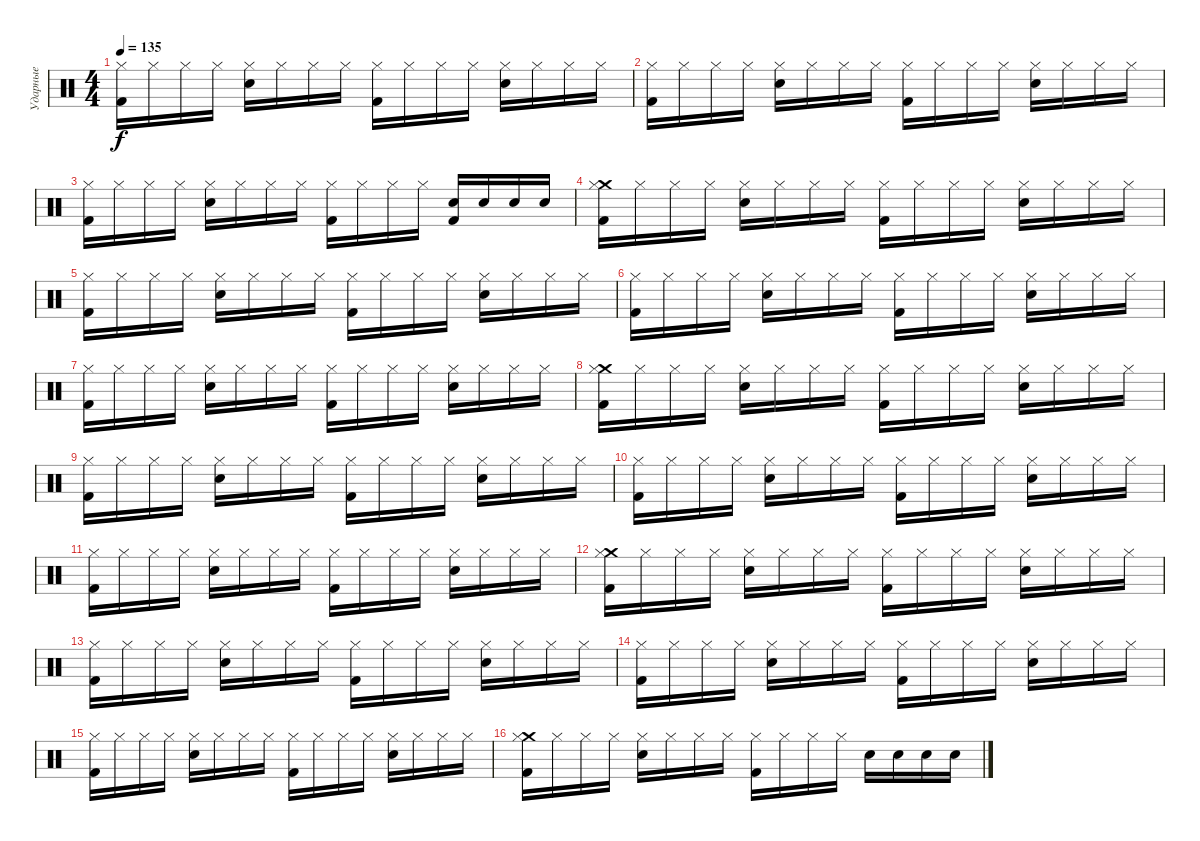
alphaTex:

\track ("Ударные" "Ударные") {instrument percussion}
\staff {score}
\articulation defaults
\ts (4 4)
\tempo 135
\clef neutral
\ks c
("Hi-Hat (closed)" "Kick (hit) 2").16{dy f} "Hi-Hat (closed)".16 "Hi-Hat (closed)".16 "Hi-Hat (closed)".16 ("Hi-Hat (closed)" "Snare (hit) 2").16 "Hi-Hat (closed)".16 "Hi-Hat (closed)".16 "Hi-Hat (closed)".16 ("Hi-Hat (closed)" "Kick (hit) 2").16 "Hi-Hat (closed)".16 "Hi-Hat (closed)".16 "Hi-Hat (closed)".16 ("Hi-Hat (closed)" "Snare (hit) 2").16 "Hi-Hat (closed)".16 "Hi-Hat (closed)".16 "Hi-Hat (closed)".16 |
("Hi-Hat (closed)" "Kick (hit) 2").16 "Hi-Hat (closed)".16 "Hi-Hat (closed)".16 "Hi-Hat (closed)".16 ("Hi-Hat (closed)" "Snare (hit) 2").16 "Hi-Hat (closed)".16 "Hi-Hat (closed)".16 "Hi-Hat (closed)".16 ("Hi-Hat (closed)" "Kick (hit) 2").16 "Hi-Hat (closed)".16 "Hi-Hat (closed)".16 "Hi-Hat (closed)".16 ("Hi-Hat (closed)" "Snare (hit) 2").16 "Hi-Hat (closed)".16 "Hi-Hat (closed)".16 "Hi-Hat (closed)".16 |
("Hi-Hat (closed)" "Kick (hit) 2").16 "Hi-Hat (closed)".16 "Hi-Hat (closed)".16 "Hi-Hat (closed)".16 ("Hi-Hat (closed)" "Snare (hit) 2").16 "Hi-Hat (closed)".16 "Hi-Hat (closed)".16 "Hi-Hat (closed)".16 ("Hi-Hat (closed)" "Kick (hit) 2").16 "Hi-Hat (closed)".16 "Hi-Hat (closed)".16 "Hi-Hat (closed)".16 ("Snare (hit) 2" "Kick (hit) 2").16 "Snare (hit) 2".16 "Snare (hit) 2".16 "Snare (hit) 2".16 |
("Crash medium (hit)" "Hi-Hat (closed)" "Kick (hit) 2").16 "Hi-Hat (closed)".16 "Hi-Hat (closed)".16 "Hi-Hat (closed)".16 ("Hi-Hat (closed)" "Snare (hit) 2").16 "Hi-Hat (closed)".16 "Hi-Hat (closed)".16 "Hi-Hat (closed)".16 ("Hi-Hat (closed)" "Kick (hit) 2").16 "Hi-Hat (closed)".16 "Hi-Hat (closed)".16 "Hi-Hat (closed)".16 ("Hi-Hat (closed)" "Snare (hit) 2").16 "Hi-Hat (closed)".16 "Hi-Hat (closed)".16 "Hi-Hat (closed)".16 |
("Hi-Hat (closed)" "Kick (hit) 2").16 "Hi-Hat (closed)".16 "Hi-Hat (closed)".16 "Hi-Hat (closed)".16 ("Hi-Hat (closed)" "Snare (hit) 2").16 "Hi-Hat (closed)".16 "Hi-Hat (closed)".16 "Hi-Hat (closed)".16 ("Hi-Hat (closed)" "Kick (hit) 2").16 "Hi-Hat (closed)".16 "Hi-Hat (closed)".16 "Hi-Hat (closed)".16 ("Hi-Hat (closed)" "Snare (hit) 2").16 "Hi-Hat (closed)".16 "Hi-Hat (closed)".16 "Hi-Hat (closed)".16 |
("Hi-Hat (closed)" "Kick (hit) 2").16 "Hi-Hat (closed)".16 "Hi-Hat (closed)".16 "Hi-Hat (closed)".16 ("Hi-Hat (closed)" "Snare (hit) 2").16 "Hi-Hat (closed)".16 "Hi-Hat (closed)".16 "Hi-Hat (closed)".16 ("Hi-Hat (closed)" "Kick (hit) 2").16 "Hi-Hat (closed)".16 "Hi-Hat (closed)".16 "Hi-Hat (closed)".16 ("Hi-Hat (closed)" "Snare (hit) 2").16 "Hi-Hat (closed)".16 "Hi-Hat (closed)".16 "Hi-Hat (closed)".16 |
("Hi-Hat (closed)" "Kick (hit) 2").16 "Hi-Hat (closed)".16 "Hi-Hat (closed)".16 "Hi-Hat (closed)".16 ("Hi-Hat (closed)" "Snare (hit) 2").16 "Hi-Hat (closed)".16 "Hi-Hat (closed)".16 "Hi-Hat (closed)".16 ("Hi-Hat (closed)" "Kick (hit) 2").16 "Hi-Hat (closed)".16 "Hi-Hat (closed)".16 "Hi-Hat (closed)".16 ("Hi-Hat (closed)" "Snare (hit) 2").16 "Hi-Hat (closed)".16 "Hi-Hat (closed)".16 "Hi-Hat (closed)".16 |
("Crash medium (hit)" "Hi-Hat (closed)" "Kick (hit) 2").16 "Hi-Hat (closed)".16 "Hi-Hat (closed)".16 "Hi-Hat (closed)".16 ("Hi-Hat (closed)" "Snare (hit) 2").16 "Hi-Hat (closed)".16 "Hi-Hat (closed)".16 "Hi-Hat (closed)".16 ("Hi-Hat (closed)" "Kick (hit) 2").16 "Hi-Hat (closed)".16 "Hi-Hat (closed)".16 "Hi-Hat (closed)".16 ("Hi-Hat (closed)" "Snare (hit) 2").16 "Hi-Hat (closed)".16 "Hi-Hat (closed)".16 "Hi-Hat (closed)".16 |
("Hi-Hat (closed)" "Kick (hit) 2").16 "Hi-Hat (closed)".16 "Hi-Hat (closed)".16 "Hi-Hat (closed)".16 ("Hi-Hat (closed)" "Snare (hit) 2").16 "Hi-Hat (closed)".16 "Hi-Hat (closed)".16 "Hi-Hat (closed)".16 ("Hi-Hat (closed)" "Kick (hit) 2").16 "Hi-Hat (closed)".16 "Hi-Hat (closed)".16 "Hi-Hat (closed)".16 ("Hi-Hat (closed)" "Snare (hit) 2").16 "Hi-Hat (closed)".16 "Hi-Hat (closed)".16 "Hi-Hat (closed)".16 |
("Hi-Hat (closed)" "Kick (hit) 2").16 "Hi-Hat (closed)".16 "Hi-Hat (closed)".16 "Hi-Hat (closed)".16 ("Hi-Hat (closed)" "Snare (hit) 2").16 "Hi-Hat (closed)".16 "Hi-Hat (closed)".16 "Hi-Hat (closed)".16 ("Hi-Hat (closed)" "Kick (hit) 2").16 "Hi-Hat (closed)".16 "Hi-Hat (closed)".16 "Hi-Hat (closed)".16 ("Hi-Hat (closed)" "Snare (hit) 2").16 "Hi-Hat (closed)".16 "Hi-Hat (closed)".16 "Hi-Hat (closed)".16 |
("Hi-Hat (closed)" "Kick (hit) 2").16 "Hi-Hat (closed)".16 "Hi-Hat (closed)".16 "Hi-Hat (closed)".16 ("Hi-Hat (closed)" "Snare (hit) 2").16 "Hi-Hat (closed)".16 "Hi-Hat (closed)".16 "Hi-Hat (closed)".16 ("Hi-Hat (closed)" "Kick (hit) 2").16 "Hi-Hat (closed)".16 "Hi-Hat (closed)".16 "Hi-Hat (closed)".16 ("Hi-Hat (closed)" "Snare (hit) 2").16 "Hi-Hat (closed)".16 "Hi-Hat (closed)".16 "Hi-Hat (closed)".16 |
("Crash medium (hit)" "Hi-Hat (closed)" "Kick (hit) 2").16 "Hi-Hat (closed)".16 "Hi-Hat (closed)".16 "Hi-Hat (closed)".16 ("Hi-Hat (closed)" "Snare (hit) 2").16 "Hi-Hat (closed)".16 "Hi-Hat (closed)".16 "Hi-Hat (closed)".16 ("Hi-Hat (closed)" "Kick (hit) 2").16 "Hi-Hat (closed)".16 "Hi-Hat (closed)".16 "Hi-Hat (closed)".16 ("Hi-Hat (closed)" "Snare (hit) 2").16 "Hi-Hat (closed)".16 "Hi-Hat (closed)".16 "Hi-Hat (closed)".16 |
("Hi-Hat (closed)" "Kick (hit) 2").16 "Hi-Hat (closed)".16 "Hi-Hat (closed)".16 "Hi-Hat (closed)".16 ("Hi-Hat (closed)" "Snare (hit) 2").16 "Hi-Hat (closed)".16 "Hi-Hat (closed)".16 "Hi-Hat (closed)".16 ("Hi-Hat (closed)" "Kick (hit) 2").16 "Hi-Hat (closed)".16 "Hi-Hat (closed)".16 "Hi-Hat (closed)".16 ("Hi-Hat (closed)" "Snare (hit) 2").16 "Hi-Hat (closed)".16 "Hi-Hat (closed)".16 "Hi-Hat (closed)".16 |
("Hi-Hat (closed)" "Kick (hit) 2").16 "Hi-Hat (closed)".16 "Hi-Hat (closed)".16 "Hi-Hat (closed)".16 ("Hi-Hat (closed)" "Snare (hit) 2").16 "Hi-Hat (closed)".16 "Hi-Hat (closed)".16 "Hi-Hat (closed)".16 ("Hi-Hat (closed)" "Kick (hit) 2").16 "Hi-Hat (closed)".16 "Hi-Hat (closed)".16 "Hi-Hat (closed)".16 ("Hi-Hat (closed)" "Snare (hit) 2").16 "Hi-Hat (closed)".16 "Hi-Hat (closed)".16 "Hi-Hat (closed)".16 |
("Hi-Hat (closed)" "Kick (hit) 2").16 "Hi-Hat (closed)".16 "Hi-Hat (closed)".16 "Hi-Hat (closed)".16 ("Hi-Hat (closed)" "Snare (hit) 2").16 "Hi-Hat (closed)".16 "Hi-Hat (closed)".16 "Hi-Hat (closed)".16 ("Hi-Hat (closed)" "Kick (hit) 2").16 "Hi-Hat (closed)".16 "Hi-Hat (closed)".16 "Hi-Hat (closed)".16 ("Hi-Hat (closed)" "Snare (hit) 2").16 "Hi-Hat (closed)".16 "Hi-Hat (closed)".16 "Hi-Hat (closed)".16 |
("Crash medium (hit)" "Hi-Hat (closed)" "Kick (hit) 2").16 "Hi-Hat (closed)".16 "Hi-Hat (closed)".16 "Hi-Hat (closed)".16 ("Hi-Hat (closed)" "Snare (hit) 2").16 "Hi-Hat (closed)".16 "Hi-Hat (closed)".16 "Hi-Hat (closed)".16 ("Hi-Hat (closed)" "Kick (hit) 2").16 "Hi-Hat (closed)".16 "Hi-Hat (closed)".16 "Hi-Hat (closed)".16 "Snare (hit) 2".16 "Snare (hit) 2".16 "Snare (hit) 2".16 "Snare (hit) 2".16
